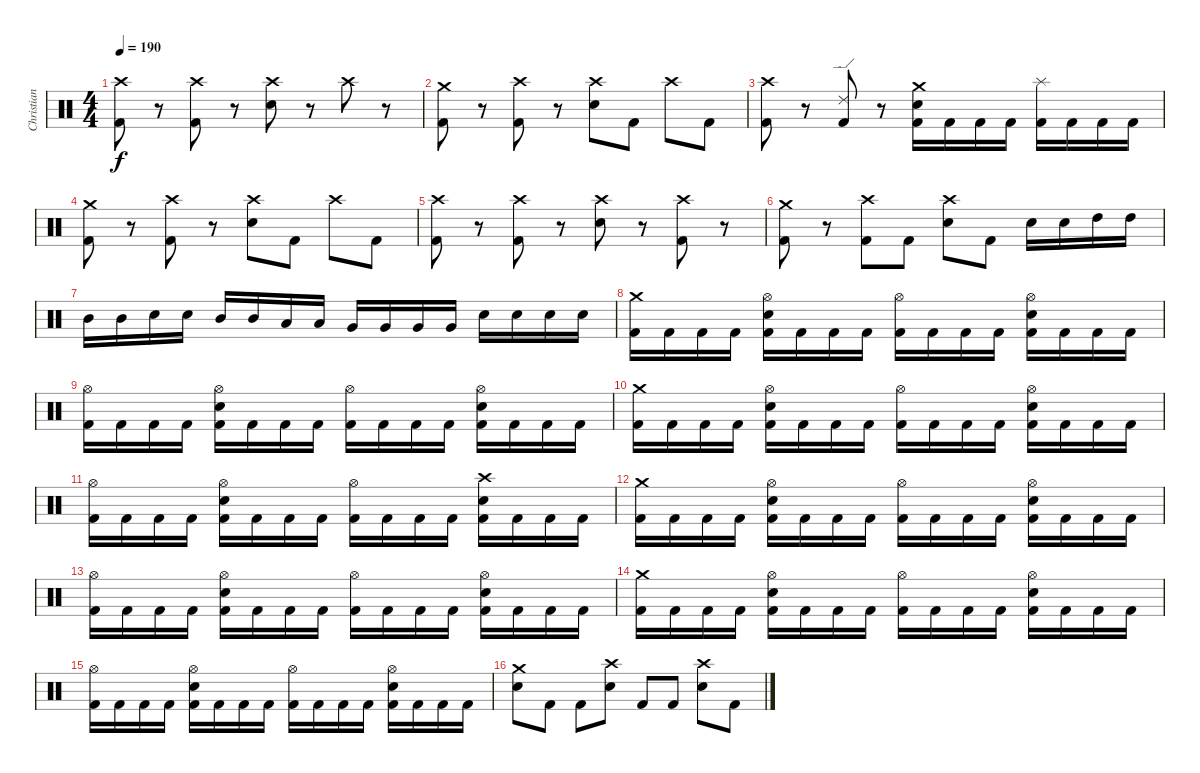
\track ("Christian" "Christian") {instrument percussion}
\staff {score}
\articulation defaults
\ts (4 4)
\tempo 190
\clef neutral
\ks c
("Crash high (hit)" "Kick (hit) 2").8{dy f} r.8 ("Crash high (hit)" "Kick (hit) 2").8 r.8 ("Crash high (hit)" "Electric Snare (hit)").8 r.8 "Crash high (hit)".8 r.8 |
("Crash medium (hit)" "Kick (hit) 2").8 r.8 ("Crash high (hit)" "Kick (hit) 2").8 r.8 ("Crash high (hit)" "Electric Snare (hit)").8 "Kick (hit) 2".8 "Crash high (hit)".8 "Kick (hit) 2".8 |
("Crash high (hit)" "Kick (hit) 2").8 r.8 ("Ride (edge) 2" "Kick (hit) 2").8 r.8 ("Crash medium (hit)" "Electric Snare (hit)" "Kick (hit) 2").16 "Kick (hit) 2".16 "Kick (hit) 2".16 "Kick (hit) 2".16 ("Splash (hit)" "Kick (hit) 2").16 "Kick (hit) 2".16 "Kick (hit) 2".16 "Kick (hit) 2".16 |
("Crash medium (hit)" "Kick (hit) 2").8 r.8 ("Crash high (hit)" "Kick (hit) 2").8 r.8 ("Crash high (hit)" "Electric Snare (hit)").8 "Kick (hit) 2".8 "Crash high (hit)".8 "Kick (hit) 2".8 |
("Crash high (hit)" "Kick (hit) 2").8 r.8 ("Crash high (hit)" "Kick (hit) 2").8 r.8 ("Crash high (hit)" "Electric Snare (hit)").8 r.8 ("Crash high (hit)" "Kick (hit) 2").8 r.8 |
("Crash medium (hit)" "Kick (hit) 2").8 r.8 ("Crash high (hit)" "Kick (hit) 2").8 "Kick (hit) 2".8 ("Crash high (hit)" "Electric Snare (hit)").8 "Kick (hit) 2".8 "Electric Snare (hit)".16 "Electric Snare (hit)".16 "High Tom (hit)".16 "High Tom (hit)".16 |
"Mid Tom (hit)".16 "Mid Tom (hit)".16 "Electric Snare (hit)".16 "Electric Snare (hit)".16 "Mid Tom (hit)".16 "Mid Tom (hit)".16 "Low Tom (hit)".16 "Low Tom (hit)".16 "Very Low Tom (hit)".16 "Very Low Tom (hit)".16 "Very Low Tom (hit)".16 "Very Low Tom (hit)".16 "Electric Snare (hit)".16 "Electric Snare (hit)".16 "Electric Snare (hit)".16 "Electric Snare (hit)".16 |
("Crash medium (hit)" "Kick (hit) 2").16 "Kick (hit) 2".16 "Kick (hit) 2".16 "Kick (hit) 2".16 ("Hi-Hat (open)" "Electric Snare (hit)" "Kick (hit) 2").16 "Kick (hit) 2".16 "Kick (hit) 2".16 "Kick (hit) 2".16 ("Hi-Hat (open)" "Kick (hit) 2").16 "Kick (hit) 2".16 "Kick (hit) 2".16 "Kick (hit) 2".16 ("Hi-Hat (open)" "Electric Snare (hit)" "Kick (hit) 2").16 "Kick (hit) 2".16 "Kick (hit) 2".16 "Kick (hit) 2".16 |
("Hi-Hat (open)" "Kick (hit) 2").16 "Kick (hit) 2".16 "Kick (hit) 2".16 "Kick (hit) 2".16 ("Hi-Hat (open)" "Electric Snare (hit)" "Kick (hit) 2").16 "Kick (hit) 2".16 "Kick (hit) 2".16 "Kick (hit) 2".16 ("Hi-Hat (open)" "Kick (hit) 2").16 "Kick (hit) 2".16 "Kick (hit) 2".16 "Kick (hit) 2".16 ("Hi-Hat (open)" "Electric Snare (hit)" "Kick (hit) 2").16 "Kick (hit) 2".16 "Kick (hit) 2".16 "Kick (hit) 2".16 |
("Crash medium (hit)" "Kick (hit) 2").16 "Kick (hit) 2".16 "Kick (hit) 2".16 "Kick (hit) 2".16 ("Hi-Hat (open)" "Electric Snare (hit)" "Kick (hit) 2").16 "Kick (hit) 2".16 "Kick (hit) 2".16 "Kick (hit) 2".16 ("Hi-Hat (open)" "Kick (hit) 2").16 "Kick (hit) 2".16 "Kick (hit) 2".16 "Kick (hit) 2".16 ("Hi-Hat (open)" "Electric Snare (hit)" "Kick (hit) 2").16 "Kick (hit) 2".16 "Kick (hit) 2".16 "Kick (hit) 2".16 |
("Hi-Hat (open)" "Kick (hit) 2").16 "Kick (hit) 2".16 "Kick (hit) 2".16 "Kick (hit) 2".16 ("Hi-Hat (open)" "Electric Snare (hit)" "Kick (hit) 2").16 "Kick (hit) 2".16 "Kick (hit) 2".16 "Kick (hit) 2".16 ("Hi-Hat (open)" "Kick (hit) 2").16 "Kick (hit) 2".16 "Kick (hit) 2".16 "Kick (hit) 2".16 ("Crash high (hit)" "Electric Snare (hit)" "Kick (hit) 2").16 "Kick (hit) 2".16 "Kick (hit) 2".16 "Kick (hit) 2".16 |
("Crash medium (hit)" "Kick (hit) 2").16 "Kick (hit) 2".16 "Kick (hit) 2".16 "Kick (hit) 2".16 ("Hi-Hat (open)" "Electric Snare (hit)" "Kick (hit) 2").16 "Kick (hit) 2".16 "Kick (hit) 2".16 "Kick (hit) 2".16 ("Hi-Hat (open)" "Kick (hit) 2").16 "Kick (hit) 2".16 "Kick (hit) 2".16 "Kick (hit) 2".16 ("Hi-Hat (open)" "Electric Snare (hit)" "Kick (hit) 2").16 "Kick (hit) 2".16 "Kick (hit) 2".16 "Kick (hit) 2".16 |
("Hi-Hat (open)" "Kick (hit) 2").16 "Kick (hit) 2".16 "Kick (hit) 2".16 "Kick (hit) 2".16 ("Hi-Hat (open)" "Electric Snare (hit)" "Kick (hit) 2").16 "Kick (hit) 2".16 "Kick (hit) 2".16 "Kick (hit) 2".16 ("Hi-Hat (open)" "Kick (hit) 2").16 "Kick (hit) 2".16 "Kick (hit) 2".16 "Kick (hit) 2".16 ("Hi-Hat (open)" "Electric Snare (hit)" "Kick (hit) 2").16 "Kick (hit) 2".16 "Kick (hit) 2".16 "Kick (hit) 2".16 |
("Crash medium (hit)" "Kick (hit) 2").16 "Kick (hit) 2".16 "Kick (hit) 2".16 "Kick (hit) 2".16 ("Hi-Hat (open)" "Electric Snare (hit)" "Kick (hit) 2").16 "Kick (hit) 2".16 "Kick (hit) 2".16 "Kick (hit) 2".16 ("Hi-Hat (open)" "Kick (hit) 2").16 "Kick (hit) 2".16 "Kick (hit) 2".16 "Kick (hit) 2".16 ("Hi-Hat (open)" "Electric Snare (hit)" "Kick (hit) 2").16 "Kick (hit) 2".16 "Kick (hit) 2".16 "Kick (hit) 2".16 |
("Hi-Hat (open)" "Kick (hit) 2").16 "Kick (hit) 2".16 "Kick (hit) 2".16 "Kick (hit) 2".16 ("Hi-Hat (open)" "Electric Snare (hit)" "Kick (hit) 2").16 "Kick (hit) 2".16 "Kick (hit) 2".16 "Kick (hit) 2".16 ("Hi-Hat (open)" "Kick (hit) 2").16 "Kick (hit) 2".16 "Kick (hit) 2".16 "Kick (hit) 2".16 ("Hi-Hat (open)" "Electric Snare (hit)" "Kick (hit) 2").16 "Kick (hit) 2".16 "Kick (hit) 2".16 "Kick (hit) 2".16 |
("Crash medium (hit)" "Electric Snare (hit)").8 "Kick (hit) 2".8 "Kick (hit) 2".8 ("Crash high (hit)" "Electric Snare (hit)").8 "Kick (hit) 2".8 "Kick (hit) 2".8 ("Crash high (hit)" "Electric Snare (hit)").8 "Kick (hit) 2".8
